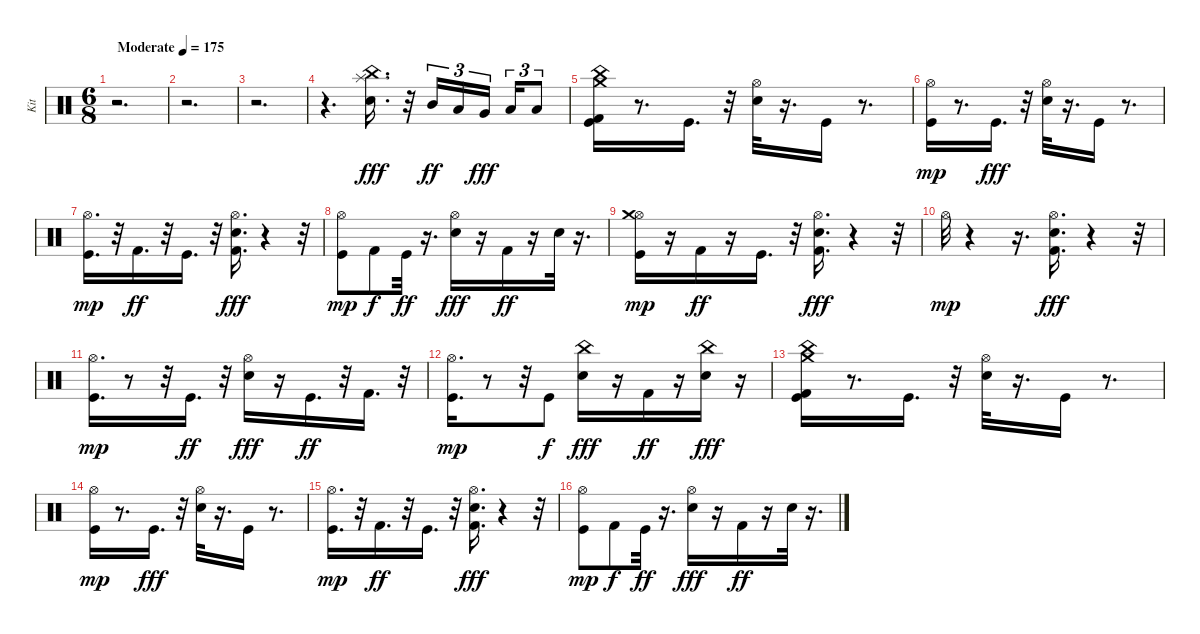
\track ("Kit" "Kit") {instrument percussion}
\staff {score}
\articulation defaults
\ts (6 8)
\tempo (175 "Moderate")
\clef neutral
\ks c
r.2{d dy fff} |
r.2{d} |
r.2{d} |
r.4{d} ("Snare (hit) 2" "China (hit)" "Splash (hit)").16{d} r.32 "Mid Tom (hit)".16{tu (3 2) dy ff} "Low Tom (hit)".16{tu (3 2)} "Very Low Tom (hit)".16{tu (3 2) dy fff beam splitsecondary} "Low Floor Tom (hit)".16{tu (3 2)} "Low Floor Tom (hit)".8{tu (3 2)} |
("Kick (hit)" "Kick (hit) 2" "China (hit)" "Crash medium (hit)").16 r.8{d} "Kick (hit)".16{d} r.32 ("Snare (hit) 2" "Hi-Hat (open)").32 r.16{d} "Kick (hit)".16 r.8{d} |
("Kick (hit)" "Hi-Hat (open)").16{dy mp} r.8{d} "Kick (hit)".16{d dy fff} r.32 ("Snare (hit) 2" "Hi-Hat (open)").32 r.16{d} "Kick (hit)".16 r.8{d} |
("Kick (hit)" "Hi-Hat (open)").16{d dy mp} r.32 "Kick (hit) 2".16{d dy ff} r.32 "Kick (hit)".16{d} r.32 ("Kick (hit) 2" "Snare (hit) 2" "Hi-Hat (open)").16{d dy fff} r.4 r.32 |
("Kick (hit)" "Hi-Hat (open)").8{dy mp} "Kick (hit) 2".8{dy f} "Kick (hit)".32{dy ff} r.16{d} ("Snare (hit) 2" "Hi-Hat (open)").16{dy fff} r.16 "Kick (hit) 2".16{dy ff} r.16 "Snare (hit) 2".32 r.16{d} |
("Kick (hit)" "Hi-Hat (open)" "Crash medium (hit)").16{dy mp} r.16 "Kick (hit) 2".16{dy ff} r.16 "Kick (hit)".16{d} r.32 ("Kick (hit) 2" "Snare (hit) 2" "Hi-Hat (open)").16{d dy fff} r.4 r.32 |
"Hi-Hat (open)".32{dy mp} r.4 r.16{d} ("Kick (hit) 2" "Snare (hit) 2" "Hi-Hat (open)").16{d dy fff} r.4 r.32 |
("Kick (hit)" "Hi-Hat (open)").16{d dy mp} r.8 r.32 "Kick (hit)".16{d dy ff} r.32 ("Snare (hit) 2" "Hi-Hat (open)").16{dy fff} r.16 "Kick (hit)".16{d dy ff} r.32 "Kick (hit) 2".16{d} r.32 |
("Kick (hit)" "Hi-Hat (open)").16{d dy mp} r.8 r.32 "Kick (hit)".8{dy f} ("Snare (hit) 2" "China (hit)").16{dy fff} r.16 "Kick (hit) 2".16{dy ff} r.16 ("Snare (hit) 2" "China (hit)").16{dy fff} r.16 |
("Kick (hit)" "Kick (hit) 2" "China (hit)" "Crash medium (hit)").16 r.8{d} "Kick (hit)".16{d} r.32 ("Snare (hit) 2" "Hi-Hat (open)").32 r.16{d} "Kick (hit)".16 r.8{d} |
("Kick (hit)" "Hi-Hat (open)").16{dy mp} r.8{d} "Kick (hit)".16{d dy fff} r.32 ("Snare (hit) 2" "Hi-Hat (open)").32 r.16{d} "Kick (hit)".16 r.8{d} |
("Kick (hit)" "Hi-Hat (open)").16{d dy mp} r.32 "Kick (hit) 2".16{d dy ff} r.32 "Kick (hit)".16{d} r.32 ("Kick (hit) 2" "Snare (hit) 2" "Hi-Hat (open)").16{d dy fff} r.4 r.32 |
("Kick (hit)" "Hi-Hat (open)").8{dy mp} "Kick (hit) 2".8{dy f} "Kick (hit)".32{dy ff} r.16{d} ("Snare (hit) 2" "Hi-Hat (open)").16{dy fff} r.16 "Kick (hit) 2".16{dy ff} r.16 "Snare (hit) 2".32 r.16{d}
